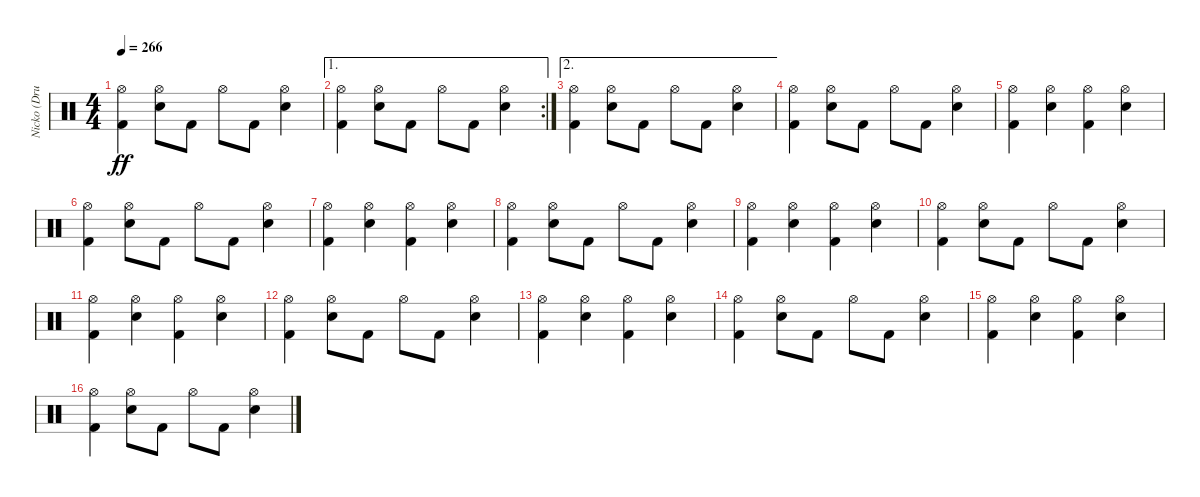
\track ("Nicko (Drums)" "Nicko (Dru") {instrument percussion}
\staff {score}
\articulation defaults
\ts (4 4)
\tempo 266
\clef neutral
\ks c
("Kick (hit) 2" "Hi-Hat (open)").4{dy ff} ("Snare (hit) 2" "Hi-Hat (open)").8 "Kick (hit) 2".8 "Hi-Hat (open)".8 "Kick (hit) 2".8 ("Snare (hit) 2" "Hi-Hat (open)").4 |
\ae 1
\rc 2
("Kick (hit) 2" "Hi-Hat (open)").4 ("Snare (hit) 2" "Hi-Hat (open)").8 "Kick (hit) 2".8 "Hi-Hat (open)".8 "Kick (hit) 2".8 ("Snare (hit) 2" "Hi-Hat (open)").4 |
\ae 2
("Kick (hit) 2" "Hi-Hat (open)").4 ("Snare (hit) 2" "Hi-Hat (open)").8 "Kick (hit) 2".8 "Hi-Hat (open)".8 "Kick (hit) 2".8 ("Snare (hit) 2" "Hi-Hat (open)").4 |
("Kick (hit) 2" "Hi-Hat (open)").4 ("Snare (hit) 2" "Hi-Hat (open)").8 "Kick (hit) 2".8 "Hi-Hat (open)".8 "Kick (hit) 2".8 ("Snare (hit) 2" "Hi-Hat (open)").4 |
("Kick (hit) 2" "Hi-Hat (open)").4 ("Snare (hit) 2" "Hi-Hat (open)").4 ("Kick (hit) 2" "Hi-Hat (open)").4 ("Snare (hit) 2" "Hi-Hat (open)").4 |
("Kick (hit) 2" "Hi-Hat (open)").4 ("Snare (hit) 2" "Hi-Hat (open)").8 "Kick (hit) 2".8 "Hi-Hat (open)".8 "Kick (hit) 2".8 ("Snare (hit) 2" "Hi-Hat (open)").4 |
("Kick (hit) 2" "Hi-Hat (open)").4 ("Snare (hit) 2" "Hi-Hat (open)").4 ("Kick (hit) 2" "Hi-Hat (open)").4 ("Snare (hit) 2" "Hi-Hat (open)").4 |
("Kick (hit) 2" "Hi-Hat (open)").4 ("Snare (hit) 2" "Hi-Hat (open)").8 "Kick (hit) 2".8 "Hi-Hat (open)".8 "Kick (hit) 2".8 ("Snare (hit) 2" "Hi-Hat (open)").4 |
("Kick (hit) 2" "Hi-Hat (open)").4 ("Snare (hit) 2" "Hi-Hat (open)").4 ("Kick (hit) 2" "Hi-Hat (open)").4 ("Snare (hit) 2" "Hi-Hat (open)").4 |
("Kick (hit) 2" "Hi-Hat (open)").4 ("Snare (hit) 2" "Hi-Hat (open)").8 "Kick (hit) 2".8 "Hi-Hat (open)".8 "Kick (hit) 2".8 ("Snare (hit) 2" "Hi-Hat (open)").4 |
("Kick (hit) 2" "Hi-Hat (open)").4 ("Snare (hit) 2" "Hi-Hat (open)").4 ("Kick (hit) 2" "Hi-Hat (open)").4 ("Snare (hit) 2" "Hi-Hat (open)").4 |
("Kick (hit) 2" "Hi-Hat (open)").4 ("Snare (hit) 2" "Hi-Hat (open)").8 "Kick (hit) 2".8 "Hi-Hat (open)".8 "Kick (hit) 2".8 ("Snare (hit) 2" "Hi-Hat (open)").4 |
("Kick (hit) 2" "Hi-Hat (open)").4 ("Snare (hit) 2" "Hi-Hat (open)").4 ("Kick (hit) 2" "Hi-Hat (open)").4 ("Snare (hit) 2" "Hi-Hat (open)").4 |
("Kick (hit) 2" "Hi-Hat (open)").4 ("Snare (hit) 2" "Hi-Hat (open)").8 "Kick (hit) 2".8 "Hi-Hat (open)".8 "Kick (hit) 2".8 ("Snare (hit) 2" "Hi-Hat (open)").4 |
("Kick (hit) 2" "Hi-Hat (open)").4 ("Snare (hit) 2" "Hi-Hat (open)").4 ("Kick (hit) 2" "Hi-Hat (open)").4 ("Snare (hit) 2" "Hi-Hat (open)").4 |
("Kick (hit) 2" "Hi-Hat (open)").4 ("Snare (hit) 2" "Hi-Hat (open)").8 "Kick (hit) 2".8 "Hi-Hat (open)".8 "Kick (hit) 2".8 ("Snare (hit) 2" "Hi-Hat (open)").4
